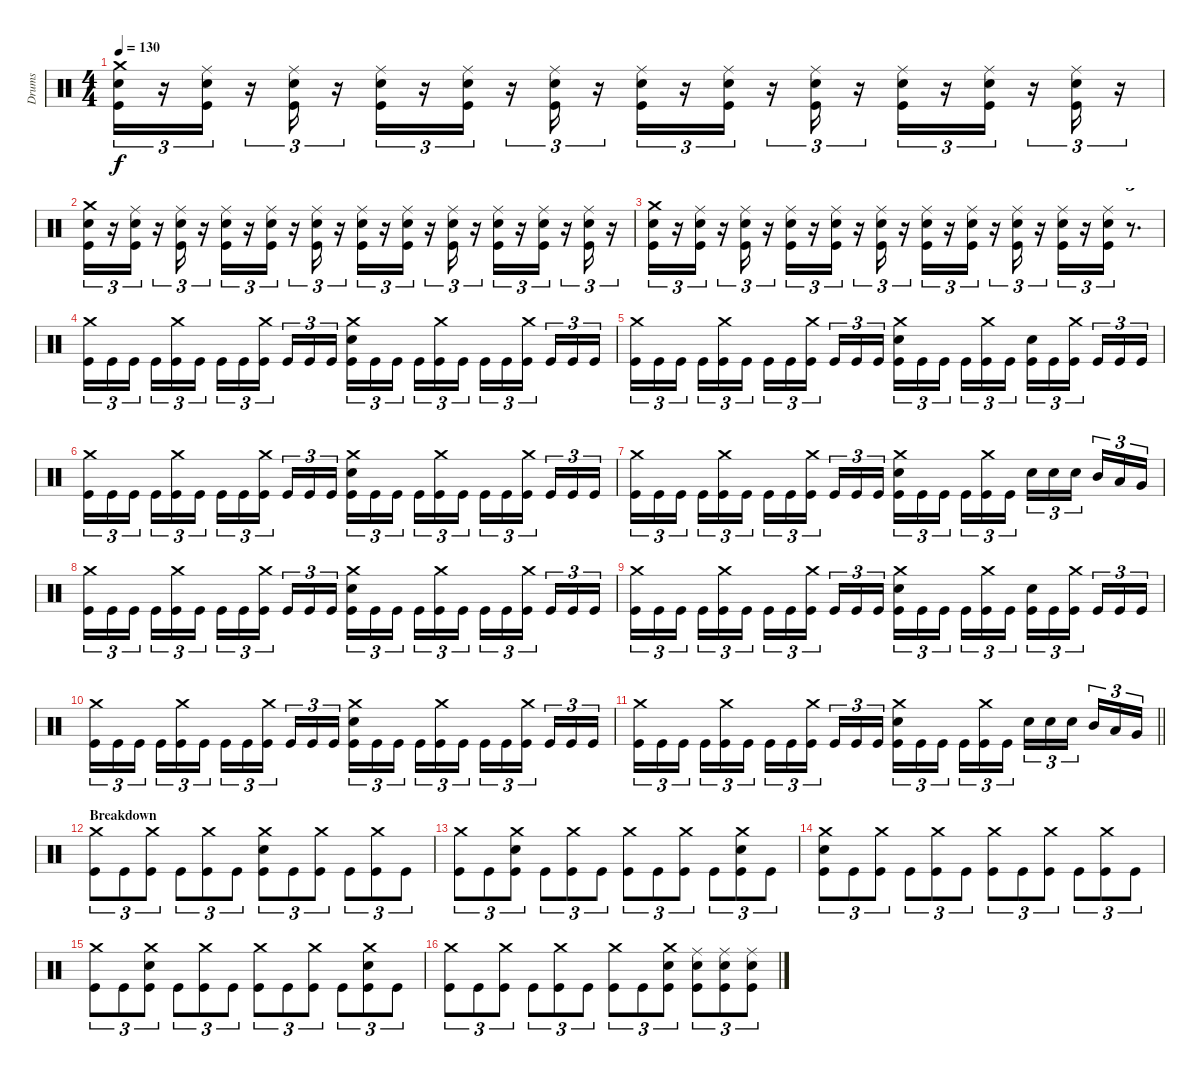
\track ("Drums" "Drums") {instrument percussion}
\staff {score}
\articulation defaults
\ts (4 4)
\tempo 130
\clef neutral
\ks c
("Crash medium (hit)" "Snare (hit) 2" "Kick (hit)").16{tu (3 2) dy f} r.16{tu (3 2)} ("Ride (middle)" "Snare (hit) 2" "Kick (hit)").16{tu (3 2)} r.16{tu (3 2)} ("Ride (middle)" "Snare (hit) 2" "Kick (hit)").16{tu (3 2)} r.16{tu (3 2)} ("Ride (middle)" "Snare (hit) 2" "Kick (hit)").16{tu (3 2)} r.16{tu (3 2)} ("Ride (middle)" "Snare (hit) 2" "Kick (hit)").16{tu (3 2)} r.16{tu (3 2)} ("Ride (middle)" "Snare (hit) 2" "Kick (hit)").16{tu (3 2)} r.16{tu (3 2)} ("Ride (middle)" "Snare (hit) 2" "Kick (hit)").16{tu (3 2)} r.16{tu (3 2)} ("Ride (middle)" "Snare (hit) 2" "Kick (hit)").16{tu (3 2)} r.16{tu (3 2)} ("Ride (middle)" "Snare (hit) 2" "Kick (hit)").16{tu (3 2)} r.16{tu (3 2)} ("Ride (middle)" "Snare (hit) 2" "Kick (hit)").16{tu (3 2)} r.16{tu (3 2)} ("Ride (middle)" "Snare (hit) 2" "Kick (hit)").16{tu (3 2)} r.16{tu (3 2)} ("Ride (middle)" "Snare (hit) 2" "Kick (hit)").16{tu (3 2)} r.16{tu (3 2)} |
("Crash medium (hit)" "Snare (hit) 2" "Kick (hit)").16{tu (3 2)} r.16{tu (3 2)} ("Ride (middle)" "Snare (hit) 2" "Kick (hit)").16{tu (3 2)} r.16{tu (3 2)} ("Ride (middle)" "Snare (hit) 2" "Kick (hit)").16{tu (3 2)} r.16{tu (3 2)} ("Ride (middle)" "Snare (hit) 2" "Kick (hit)").16{tu (3 2)} r.16{tu (3 2)} ("Ride (middle)" "Snare (hit) 2" "Kick (hit)").16{tu (3 2)} r.16{tu (3 2)} ("Ride (middle)" "Snare (hit) 2" "Kick (hit)").16{tu (3 2)} r.16{tu (3 2)} ("Ride (middle)" "Snare (hit) 2" "Kick (hit)").16{tu (3 2)} r.16{tu (3 2)} ("Ride (middle)" "Snare (hit) 2" "Kick (hit)").16{tu (3 2)} r.16{tu (3 2)} ("Ride (middle)" "Snare (hit) 2" "Kick (hit)").16{tu (3 2)} r.16{tu (3 2)} ("Ride (middle)" "Snare (hit) 2" "Kick (hit)").16{tu (3 2)} r.16{tu (3 2)} ("Ride (middle)" "Snare (hit) 2" "Kick (hit)").16{tu (3 2)} r.16{tu (3 2)} ("Ride (middle)" "Snare (hit) 2" "Kick (hit)").16{tu (3 2)} r.16{tu (3 2)} |
("Crash medium (hit)" "Snare (hit) 2" "Kick (hit)").16{tu (3 2)} r.16{tu (3 2)} ("Ride (middle)" "Snare (hit) 2" "Kick (hit)").16{tu (3 2)} r.16{tu (3 2)} ("Ride (middle)" "Snare (hit) 2" "Kick (hit)").16{tu (3 2)} r.16{tu (3 2)} ("Ride (middle)" "Snare (hit) 2" "Kick (hit)").16{tu (3 2)} r.16{tu (3 2)} ("Ride (middle)" "Snare (hit) 2" "Kick (hit)").16{tu (3 2)} r.16{tu (3 2)} ("Ride (middle)" "Snare (hit) 2" "Kick (hit)").16{tu (3 2)} r.16{tu (3 2)} ("Ride (middle)" "Snare (hit) 2" "Kick (hit)").16{tu (3 2)} r.16{tu (3 2)} ("Ride (middle)" "Snare (hit) 2" "Kick (hit)").16{tu (3 2)} r.16{tu (3 2)} ("Ride (middle)" "Snare (hit) 2" "Kick (hit)").16{tu (3 2)} r.16{tu (3 2)} ("Ride (middle)" "Snare (hit) 2" "Kick (hit)").16{tu (3 2)} r.16{tu (3 2)} ("Ride (middle)" "Snare (hit) 2" "Kick (hit)").16{tu (3 2)} r.8{d tu (3 2)} |
("Crash medium (hit)" "Kick (hit)").16{tu (3 2)} "Kick (hit)".16{tu (3 2)} "Kick (hit)".16{tu (3 2) beam splitsecondary} "Kick (hit)".16{tu (3 2)} ("Crash medium (hit)" "Kick (hit)").16{tu (3 2)} "Kick (hit)".16{tu (3 2)} "Kick (hit)".16{tu (3 2)} "Kick (hit)".16{tu (3 2)} ("Crash medium (hit)" "Kick (hit)").16{tu (3 2) beam splitsecondary} "Kick (hit)".16{tu (3 2)} "Kick (hit)".16{tu (3 2)} "Kick (hit)".16{tu (3 2)} ("Crash medium (hit)" "Snare (hit) 2" "Kick (hit)").16{tu (3 2)} "Kick (hit)".16{tu (3 2)} "Kick (hit)".16{tu (3 2) beam splitsecondary} "Kick (hit)".16{tu (3 2)} ("Crash medium (hit)" "Kick (hit)").16{tu (3 2)} "Kick (hit)".16{tu (3 2)} "Kick (hit)".16{tu (3 2)} "Kick (hit)".16{tu (3 2)} ("Crash medium (hit)" "Kick (hit)").16{tu (3 2) beam splitsecondary} "Kick (hit)".16{tu (3 2)} "Kick (hit)".16{tu (3 2)} "Kick (hit)".16{tu (3 2)} |
("Crash medium (hit)" "Kick (hit)").16{tu (3 2)} "Kick (hit)".16{tu (3 2)} "Kick (hit)".16{tu (3 2) beam splitsecondary} "Kick (hit)".16{tu (3 2)} ("Crash medium (hit)" "Kick (hit)").16{tu (3 2)} "Kick (hit)".16{tu (3 2)} "Kick (hit)".16{tu (3 2)} "Kick (hit)".16{tu (3 2)} ("Crash medium (hit)" "Kick (hit)").16{tu (3 2) beam splitsecondary} "Kick (hit)".16{tu (3 2)} "Kick (hit)".16{tu (3 2)} "Kick (hit)".16{tu (3 2)} ("Crash medium (hit)" "Snare (hit) 2" "Kick (hit)").16{tu (3 2)} "Kick (hit)".16{tu (3 2)} "Kick (hit)".16{tu (3 2) beam splitsecondary} "Kick (hit)".16{tu (3 2)} ("Crash medium (hit)" "Kick (hit)").16{tu (3 2)} "Kick (hit)".16{tu (3 2)} ("Snare (hit) 2" "Kick (hit)").16{tu (3 2)} "Kick (hit)".16{tu (3 2)} ("Crash medium (hit)" "Kick (hit)").16{tu (3 2) beam splitsecondary} "Kick (hit)".16{tu (3 2)} "Kick (hit)".16{tu (3 2)} "Kick (hit)".16{tu (3 2)} |
("Crash medium (hit)" "Kick (hit)").16{tu (3 2)} "Kick (hit)".16{tu (3 2)} "Kick (hit)".16{tu (3 2) beam splitsecondary} "Kick (hit)".16{tu (3 2)} ("Crash medium (hit)" "Kick (hit)").16{tu (3 2)} "Kick (hit)".16{tu (3 2)} "Kick (hit)".16{tu (3 2)} "Kick (hit)".16{tu (3 2)} ("Crash medium (hit)" "Kick (hit)").16{tu (3 2) beam splitsecondary} "Kick (hit)".16{tu (3 2)} "Kick (hit)".16{tu (3 2)} "Kick (hit)".16{tu (3 2)} ("Crash medium (hit)" "Snare (hit) 2" "Kick (hit)").16{tu (3 2)} "Kick (hit)".16{tu (3 2)} "Kick (hit)".16{tu (3 2) beam splitsecondary} "Kick (hit)".16{tu (3 2)} ("Crash medium (hit)" "Kick (hit)").16{tu (3 2)} "Kick (hit)".16{tu (3 2)} "Kick (hit)".16{tu (3 2)} "Kick (hit)".16{tu (3 2)} ("Crash medium (hit)" "Kick (hit)").16{tu (3 2) beam splitsecondary} "Kick (hit)".16{tu (3 2)} "Kick (hit)".16{tu (3 2)} "Kick (hit)".16{tu (3 2)} |
("Crash medium (hit)" "Kick (hit)").16{tu (3 2)} "Kick (hit)".16{tu (3 2)} "Kick (hit)".16{tu (3 2) beam splitsecondary} "Kick (hit)".16{tu (3 2)} ("Crash medium (hit)" "Kick (hit)").16{tu (3 2)} "Kick (hit)".16{tu (3 2)} "Kick (hit)".16{tu (3 2)} "Kick (hit)".16{tu (3 2)} ("Crash medium (hit)" "Kick (hit)").16{tu (3 2) beam splitsecondary} "Kick (hit)".16{tu (3 2)} "Kick (hit)".16{tu (3 2)} "Kick (hit)".16{tu (3 2)} ("Crash medium (hit)" "Snare (hit) 2" "Kick (hit)").16{tu (3 2)} "Kick (hit)".16{tu (3 2)} "Kick (hit)".16{tu (3 2) beam splitsecondary} "Kick (hit)".16{tu (3 2)} ("Crash medium (hit)" "Kick (hit)").16{tu (3 2)} "Kick (hit)".16{tu (3 2)} "Snare (hit) 2".16{tu (3 2)} "Snare (hit) 2".16{tu (3 2)} "Snare (hit) 2".16{tu (3 2) beam splitsecondary} "Mid Tom (hit)".16{tu (3 2)} "Low Tom (hit)".16{tu (3 2)} "Very Low Tom (hit)".16{tu (3 2)} |
("Crash medium (hit)" "Kick (hit)").16{tu (3 2)} "Kick (hit)".16{tu (3 2)} "Kick (hit)".16{tu (3 2) beam splitsecondary} "Kick (hit)".16{tu (3 2)} ("Crash medium (hit)" "Kick (hit)").16{tu (3 2)} "Kick (hit)".16{tu (3 2)} "Kick (hit)".16{tu (3 2)} "Kick (hit)".16{tu (3 2)} ("Crash medium (hit)" "Kick (hit)").16{tu (3 2) beam splitsecondary} "Kick (hit)".16{tu (3 2)} "Kick (hit)".16{tu (3 2)} "Kick (hit)".16{tu (3 2)} ("Crash medium (hit)" "Snare (hit) 2" "Kick (hit)").16{tu (3 2)} "Kick (hit)".16{tu (3 2)} "Kick (hit)".16{tu (3 2) beam splitsecondary} "Kick (hit)".16{tu (3 2)} ("Crash medium (hit)" "Kick (hit)").16{tu (3 2)} "Kick (hit)".16{tu (3 2)} "Kick (hit)".16{tu (3 2)} "Kick (hit)".16{tu (3 2)} ("Crash medium (hit)" "Kick (hit)").16{tu (3 2) beam splitsecondary} "Kick (hit)".16{tu (3 2)} "Kick (hit)".16{tu (3 2)} "Kick (hit)".16{tu (3 2)} |
("Crash medium (hit)" "Kick (hit)").16{tu (3 2)} "Kick (hit)".16{tu (3 2)} "Kick (hit)".16{tu (3 2) beam splitsecondary} "Kick (hit)".16{tu (3 2)} ("Crash medium (hit)" "Kick (hit)").16{tu (3 2)} "Kick (hit)".16{tu (3 2)} "Kick (hit)".16{tu (3 2)} "Kick (hit)".16{tu (3 2)} ("Crash medium (hit)" "Kick (hit)").16{tu (3 2) beam splitsecondary} "Kick (hit)".16{tu (3 2)} "Kick (hit)".16{tu (3 2)} "Kick (hit)".16{tu (3 2)} ("Crash medium (hit)" "Snare (hit) 2" "Kick (hit)").16{tu (3 2)} "Kick (hit)".16{tu (3 2)} "Kick (hit)".16{tu (3 2) beam splitsecondary} "Kick (hit)".16{tu (3 2)} ("Crash medium (hit)" "Kick (hit)").16{tu (3 2)} "Kick (hit)".16{tu (3 2)} ("Snare (hit) 2" "Kick (hit)").16{tu (3 2)} "Kick (hit)".16{tu (3 2)} ("Crash medium (hit)" "Kick (hit)").16{tu (3 2) beam splitsecondary} "Kick (hit)".16{tu (3 2)} "Kick (hit)".16{tu (3 2)} "Kick (hit)".16{tu (3 2)} |
("Crash medium (hit)" "Kick (hit)").16{tu (3 2)} "Kick (hit)".16{tu (3 2)} "Kick (hit)".16{tu (3 2) beam splitsecondary} "Kick (hit)".16{tu (3 2)} ("Crash medium (hit)" "Kick (hit)").16{tu (3 2)} "Kick (hit)".16{tu (3 2)} "Kick (hit)".16{tu (3 2)} "Kick (hit)".16{tu (3 2)} ("Crash medium (hit)" "Kick (hit)").16{tu (3 2) beam splitsecondary} "Kick (hit)".16{tu (3 2)} "Kick (hit)".16{tu (3 2)} "Kick (hit)".16{tu (3 2)} ("Crash medium (hit)" "Snare (hit) 2" "Kick (hit)").16{tu (3 2)} "Kick (hit)".16{tu (3 2)} "Kick (hit)".16{tu (3 2) beam splitsecondary} "Kick (hit)".16{tu (3 2)} ("Crash medium (hit)" "Kick (hit)").16{tu (3 2)} "Kick (hit)".16{tu (3 2)} "Kick (hit)".16{tu (3 2)} "Kick (hit)".16{tu (3 2)} ("Crash medium (hit)" "Kick (hit)").16{tu (3 2) beam splitsecondary} "Kick (hit)".16{tu (3 2)} "Kick (hit)".16{tu (3 2)} "Kick (hit)".16{tu (3 2)} |
\barLineRight lightlight
("Crash medium (hit)" "Kick (hit)").16{tu (3 2)} "Kick (hit)".16{tu (3 2)} "Kick (hit)".16{tu (3 2) beam splitsecondary} "Kick (hit)".16{tu (3 2)} ("Crash medium (hit)" "Kick (hit)").16{tu (3 2)} "Kick (hit)".16{tu (3 2)} "Kick (hit)".16{tu (3 2)} "Kick (hit)".16{tu (3 2)} ("Crash medium (hit)" "Kick (hit)").16{tu (3 2) beam splitsecondary} "Kick (hit)".16{tu (3 2)} "Kick (hit)".16{tu (3 2)} "Kick (hit)".16{tu (3 2)} ("Crash medium (hit)" "Snare (hit) 2" "Kick (hit)").16{tu (3 2)} "Kick (hit)".16{tu (3 2)} "Kick (hit)".16{tu (3 2) beam splitsecondary} "Kick (hit)".16{tu (3 2)} ("Crash medium (hit)" "Kick (hit)").16{tu (3 2)} "Kick (hit)".16{tu (3 2)} "Snare (hit) 2".16{tu (3 2)} "Snare (hit) 2".16{tu (3 2)} "Snare (hit) 2".16{tu (3 2) beam splitsecondary} "Mid Tom (hit)".16{tu (3 2)} "Low Tom (hit)".16{tu (3 2)} "Very Low Tom (hit)".16{tu (3 2)} |
\section ("" "Breakdown")
("Crash medium (hit)" "Kick (hit)").8{tu (3 2)} "Kick (hit)".8{tu (3 2)} ("Crash medium (hit)" "Kick (hit)").8{tu (3 2)} "Kick (hit)".8{tu (3 2)} ("Crash medium (hit)" "Kick (hit)").8{tu (3 2)} "Kick (hit)".8{tu (3 2)} ("Crash medium (hit)" "Snare (hit) 2" "Kick (hit)").8{tu (3 2)} "Kick (hit)".8{tu (3 2)} ("Crash medium (hit)" "Kick (hit)").8{tu (3 2)} "Kick (hit)".8{tu (3 2)} ("Crash medium (hit)" "Kick (hit)").8{tu (3 2)} "Kick (hit)".8{tu (3 2)} |
("Crash medium (hit)" "Kick (hit)").8{tu (3 2)} "Kick (hit)".8{tu (3 2)} ("Crash medium (hit)" "Snare (hit) 2" "Kick (hit)").8{tu (3 2)} "Kick (hit)".8{tu (3 2)} ("Crash medium (hit)" "Kick (hit)").8{tu (3 2)} "Kick (hit)".8{tu (3 2)} ("Crash medium (hit)" "Kick (hit)").8{tu (3 2)} "Kick (hit)".8{tu (3 2)} ("Crash medium (hit)" "Kick (hit)").8{tu (3 2)} "Kick (hit)".8{tu (3 2)} ("Crash medium (hit)" "Snare (hit) 2" "Kick (hit)").8{tu (3 2)} "Kick (hit)".8{tu (3 2)} |
("Crash medium (hit)" "Snare (hit) 2" "Kick (hit)").8{tu (3 2)} "Kick (hit)".8{tu (3 2)} ("Crash medium (hit)" "Kick (hit)").8{tu (3 2)} "Kick (hit)".8{tu (3 2)} ("Crash medium (hit)" "Kick (hit)").8{tu (3 2)} "Kick (hit)".8{tu (3 2)} ("Crash medium (hit)" "Kick (hit)").8{tu (3 2)} "Kick (hit)".8{tu (3 2)} ("Crash medium (hit)" "Kick (hit)").8{tu (3 2)} "Kick (hit)".8{tu (3 2)} ("Crash medium (hit)" "Kick (hit)").8{tu (3 2)} "Kick (hit)".8{tu (3 2)} |
("Crash medium (hit)" "Kick (hit)").8{tu (3 2)} "Kick (hit)".8{tu (3 2)} ("Crash medium (hit)" "Snare (hit) 2" "Kick (hit)").8{tu (3 2)} "Kick (hit)".8{tu (3 2)} ("Crash medium (hit)" "Kick (hit)").8{tu (3 2)} "Kick (hit)".8{tu (3 2)} ("Crash medium (hit)" "Kick (hit)").8{tu (3 2)} "Kick (hit)".8{tu (3 2)} ("Crash medium (hit)" "Kick (hit)").8{tu (3 2)} "Kick (hit)".8{tu (3 2)} ("Crash medium (hit)" "Snare (hit) 2" "Kick (hit)").8{tu (3 2)} "Kick (hit)".8{tu (3 2)} |
("Crash medium (hit)" "Kick (hit)").8{tu (3 2)} "Kick (hit)".8{tu (3 2)} ("Crash medium (hit)" "Kick (hit)").8{tu (3 2)} "Kick (hit)".8{tu (3 2)} ("Crash medium (hit)" "Kick (hit)").8{tu (3 2)} "Kick (hit)".8{tu (3 2)} ("Crash medium (hit)" "Kick (hit)").8{tu (3 2)} "Kick (hit)".8{tu (3 2)} ("Crash medium (hit)" "Snare (hit) 2" "Kick (hit)").8{tu (3 2)} ("Ride (middle)" "Snare (hit) 2" "Kick (hit)").8{tu (3 2)} ("Ride (middle)" "Snare (hit) 2" "Kick (hit)").8{tu (3 2)} ("Ride (middle)" "Snare (hit) 2" "Kick (hit)").8{tu (3 2)}
